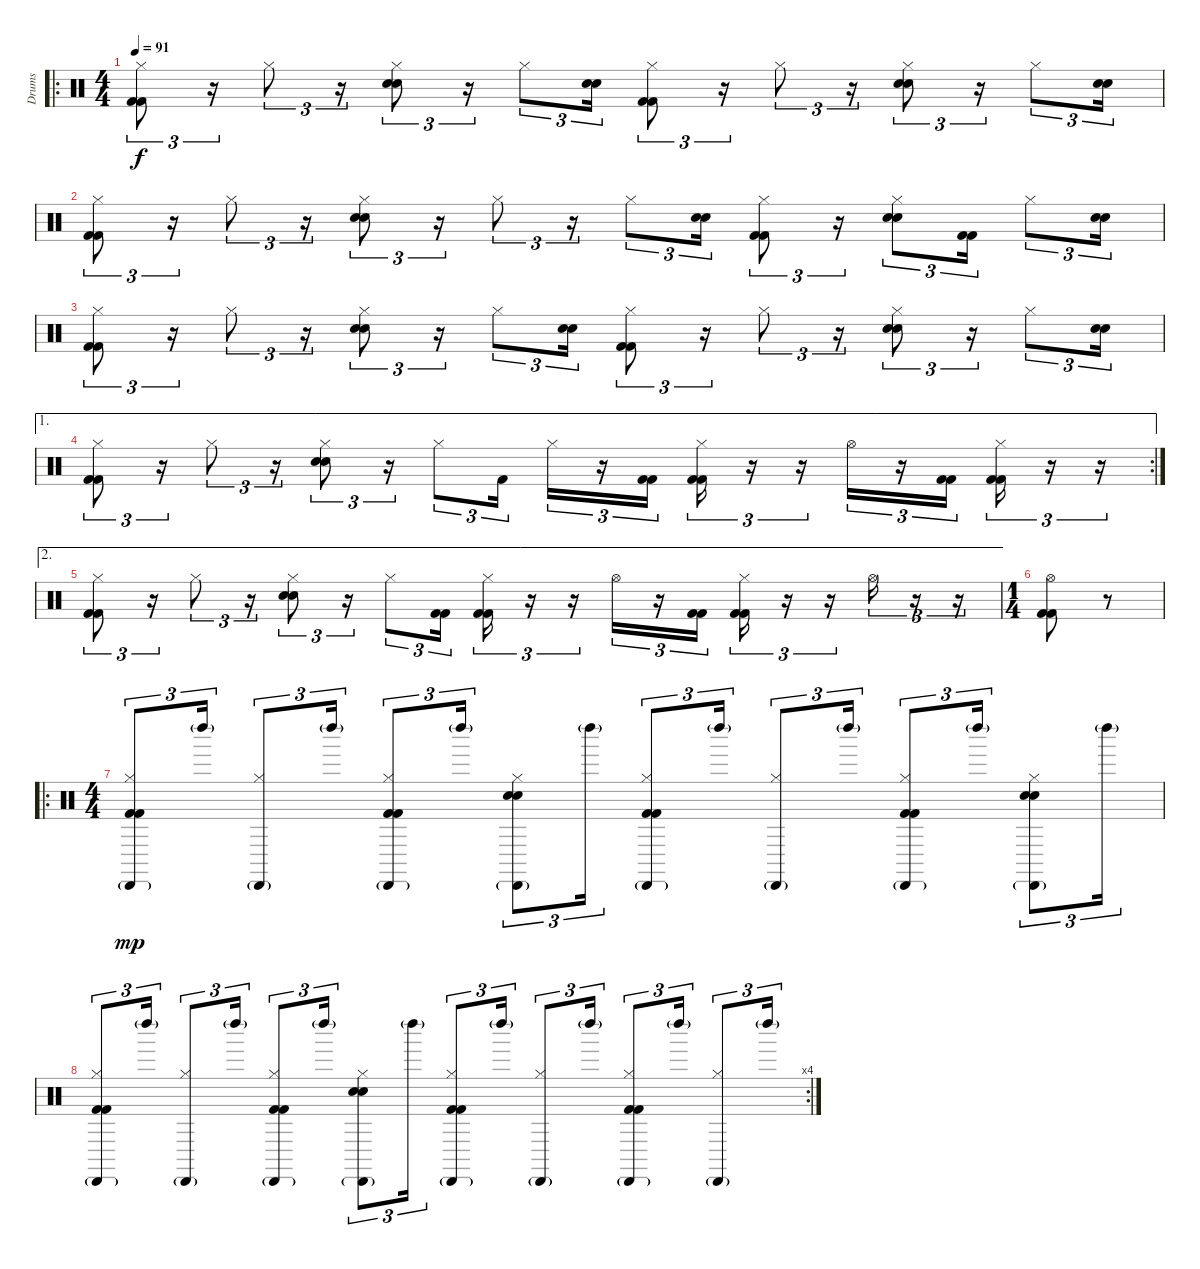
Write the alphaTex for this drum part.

\track ("Drums" "Drums") {instrument percussion}
\staff {score}
\articulation defaults
\ro
\ts (4 4)
\tempo 91
\clef neutral
\ks c
("Hi-Hat (closed)" "Kick (hit) 2" "Kick (hit) 2").8{tu (3 2) dy f} r.16{tu (3 2)} "Hi-Hat (closed)".8{tu (3 2)} r.16{tu (3 2)} ("Hi-Hat (closed)" "Electric Snare (hit)" "Electric Snare (hit)").8{tu (3 2)} r.16{tu (3 2)} "Hi-Hat (closed)".8{tu (3 2)} ("Electric Snare (hit)" "Electric Snare (hit)").16{tu (3 2)} ("Hi-Hat (closed)" "Kick (hit) 2" "Kick (hit) 2").8{tu (3 2)} r.16{tu (3 2)} "Hi-Hat (closed)".8{tu (3 2)} r.16{tu (3 2)} ("Hi-Hat (closed)" "Electric Snare (hit)" "Electric Snare (hit)").8{tu (3 2)} r.16{tu (3 2)} "Hi-Hat (closed)".8{tu (3 2)} ("Electric Snare (hit)" "Electric Snare (hit)").16{tu (3 2)} |
("Hi-Hat (closed)" "Kick (hit) 2" "Kick (hit) 2").8{tu (3 2)} r.16{tu (3 2)} "Hi-Hat (closed)".8{tu (3 2)} r.16{tu (3 2)} ("Hi-Hat (closed)" "Electric Snare (hit)" "Electric Snare (hit)").8{tu (3 2)} r.16{tu (3 2)} "Hi-Hat (closed)".8{tu (3 2)} r.16{tu (3 2)} "Hi-Hat (closed)".8{tu (3 2)} ("Electric Snare (hit)" "Electric Snare (hit)").16{tu (3 2)} ("Hi-Hat (closed)" "Kick (hit) 2" "Kick (hit) 2").8{tu (3 2)} r.16{tu (3 2)} ("Hi-Hat (closed)" "Electric Snare (hit)" "Electric Snare (hit)").8{tu (3 2)} ("Kick (hit) 2" "Kick (hit) 2").16{tu (3 2)} "Hi-Hat (closed)".8{tu (3 2)} ("Electric Snare (hit)" "Electric Snare (hit)").16{tu (3 2)} |
("Hi-Hat (closed)" "Kick (hit) 2" "Kick (hit) 2").8{tu (3 2)} r.16{tu (3 2)} "Hi-Hat (closed)".8{tu (3 2)} r.16{tu (3 2)} ("Hi-Hat (closed)" "Electric Snare (hit)" "Electric Snare (hit)").8{tu (3 2)} r.16{tu (3 2)} "Hi-Hat (closed)".8{tu (3 2)} ("Electric Snare (hit)" "Electric Snare (hit)").16{tu (3 2)} ("Hi-Hat (closed)" "Kick (hit) 2" "Kick (hit) 2").8{tu (3 2)} r.16{tu (3 2)} "Hi-Hat (closed)".8{tu (3 2)} r.16{tu (3 2)} ("Hi-Hat (closed)" "Electric Snare (hit)" "Electric Snare (hit)").8{tu (3 2)} r.16{tu (3 2)} "Hi-Hat (closed)".8{tu (3 2)} ("Electric Snare (hit)" "Electric Snare (hit)").16{tu (3 2)} |
\ae 1
\rc 2
("Hi-Hat (closed)" "Kick (hit) 2" "Kick (hit) 2").8{tu (3 2)} r.16{tu (3 2)} "Hi-Hat (closed)".8{tu (3 2)} r.16{tu (3 2)} ("Hi-Hat (closed)" "Electric Snare (hit)" "Electric Snare (hit)").8{tu (3 2)} r.16{tu (3 2)} "Hi-Hat (closed)".8{tu (3 2)} "Kick (hit) 2".16{tu (3 2)} "Hi-Hat (closed)".16{tu (3 2)} r.16{tu (3 2)} ("Kick (hit) 2" "Kick (hit) 2").16{tu (3 2)} ("Hi-Hat (closed)" "Kick (hit) 2" "Kick (hit) 2").16{tu (3 2)} r.16{tu (3 2)} r.16{tu (3 2)} "Hi-Hat (open)".16{tu (3 2)} r.16{tu (3 2)} ("Kick (hit) 2" "Kick (hit) 2").16{tu (3 2)} ("Hi-Hat (closed)" "Kick (hit) 2" "Kick (hit) 2").16{tu (3 2)} r.16{tu (3 2)} r.16{tu (3 2)} |
\ae 2
("Hi-Hat (closed)" "Kick (hit) 2" "Kick (hit) 2").8{tu (3 2)} r.16{tu (3 2)} "Hi-Hat (closed)".8{tu (3 2)} r.16{tu (3 2)} ("Hi-Hat (closed)" "Electric Snare (hit)" "Electric Snare (hit)").8{tu (3 2)} r.16{tu (3 2)} "Hi-Hat (closed)".8{tu (3 2)} ("Kick (hit) 2" "Kick (hit) 2").16{tu (3 2)} ("Hi-Hat (closed)" "Kick (hit) 2" "Kick (hit) 2").16{tu (3 2)} r.16{tu (3 2)} r.16{tu (3 2)} "Hi-Hat (open)".16{tu (3 2)} r.16{tu (3 2)} ("Kick (hit) 2" "Kick (hit) 2").16{tu (3 2)} ("Hi-Hat (closed)" "Kick (hit) 2" "Kick (hit) 2").16{tu (3 2)} r.16{tu (3 2)} r.16{tu (3 2)} "Hi-Hat (open)".16{tu (3 2)} r.16{tu (3 2)} r.16{tu (3 2)} |
\ts (1 4)
("Hi-Hat (open)" "Kick (hit) 2" "Kick (hit) 2").8 r.8 |
\ro
\ts (4 4)
("Hi-Hat (closed)" "Cabasa (hit)"{g} "Kick (hit) 2" "Kick (hit) 2").8{tu (3 2) dy mp} "Left Maraca (hit)"{g}.16{tu (3 2)} ("Hi-Hat (closed)" "Cabasa (hit)"{g}).8{tu (3 2)} "Left Maraca (hit)"{g}.16{tu (3 2)} ("Hi-Hat (closed)" "Cabasa (hit)"{g} "Kick (hit) 2" "Kick (hit) 2").8{tu (3 2)} "Left Maraca (hit)"{g}.16{tu (3 2)} ("Hi-Hat (closed)" "Cabasa (hit)"{g} "Hand Clap (hit)" "Hand Clap (hit)").8{tu (3 2)} "Left Maraca (hit)"{g}.16{tu (3 2)} ("Hi-Hat (closed)" "Cabasa (hit)"{g} "Kick (hit) 2" "Kick (hit) 2").8{tu (3 2)} "Left Maraca (hit)"{g}.16{tu (3 2)} ("Hi-Hat (closed)" "Cabasa (hit)"{g}).8{tu (3 2)} "Left Maraca (hit)"{g}.16{tu (3 2)} ("Hi-Hat (closed)" "Cabasa (hit)"{g} "Kick (hit) 2" "Kick (hit) 2").8{tu (3 2)} "Left Maraca (hit)"{g}.16{tu (3 2)} ("Hi-Hat (closed)" "Cabasa (hit)"{g} "Hand Clap (hit)" "Hand Clap (hit)").8{tu (3 2)} "Left Maraca (hit)"{g}.16{tu (3 2)} |
\rc 4
("Hi-Hat (closed)" "Cabasa (hit)"{g} "Kick (hit) 2" "Kick (hit) 2").8{tu (3 2)} "Left Maraca (hit)"{g}.16{tu (3 2)} ("Hi-Hat (closed)" "Cabasa (hit)"{g}).8{tu (3 2)} "Left Maraca (hit)"{g}.16{tu (3 2)} ("Hi-Hat (closed)" "Cabasa (hit)"{g} "Kick (hit) 2" "Kick (hit) 2").8{tu (3 2)} "Left Maraca (hit)"{g}.16{tu (3 2)} ("Hi-Hat (closed)" "Cabasa (hit)"{g} "Hand Clap (hit)" "Hand Clap (hit)").8{tu (3 2)} "Left Maraca (hit)"{g}.16{tu (3 2)} ("Hi-Hat (closed)" "Cabasa (hit)"{g} "Kick (hit) 2" "Kick (hit) 2").8{tu (3 2)} "Left Maraca (hit)"{g}.16{tu (3 2)} ("Hi-Hat (closed)" "Cabasa (hit)"{g}).8{tu (3 2)} "Left Maraca (hit)"{g}.16{tu (3 2)} ("Hi-Hat (closed)" "Cabasa (hit)"{g} "Kick (hit) 2" "Kick (hit) 2").8{tu (3 2)} "Left Maraca (hit)"{g}.16{tu (3 2)} ("Hi-Hat (closed)" "Cabasa (hit)"{g}).8{tu (3 2)} "Left Maraca (hit)"{g}.16{tu (3 2)}
